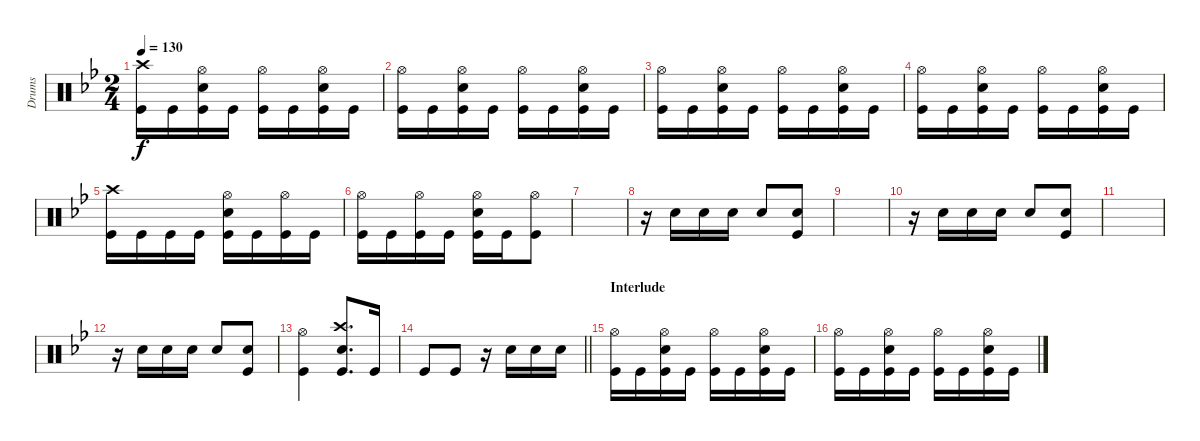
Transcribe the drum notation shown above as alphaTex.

\track ("Drums" "Drums") {instrument percussion}
\staff {score}
\articulation defaults
\ts (2 4)
\tempo 130
\clef neutral
\ks gminor
("Kick (hit)" "Crash high (hit)").16{dy f} "Kick (hit)".16 ("Kick (hit)" "Snare (hit) 2" "Hi-Hat (open)").16 "Kick (hit)".16 ("Kick (hit)" "Hi-Hat (open)").16 "Kick (hit)".16 ("Kick (hit)" "Snare (hit) 2" "Hi-Hat (open)").16 "Kick (hit)".16 |
("Kick (hit)" "Hi-Hat (open)").16 "Kick (hit)".16 ("Kick (hit)" "Snare (hit) 2" "Hi-Hat (open)").16 "Kick (hit)".16 ("Kick (hit)" "Hi-Hat (open)").16 "Kick (hit)".16 ("Kick (hit)" "Snare (hit) 2" "Hi-Hat (open)").16 "Kick (hit)".16 |
("Kick (hit)" "Hi-Hat (open)").16 "Kick (hit)".16 ("Kick (hit)" "Snare (hit) 2" "Hi-Hat (open)").16 "Kick (hit)".16 ("Kick (hit)" "Hi-Hat (open)").16 "Kick (hit)".16 ("Kick (hit)" "Snare (hit) 2" "Hi-Hat (open)").16 "Kick (hit)".16 |
("Kick (hit)" "Hi-Hat (open)").16 "Kick (hit)".16 ("Kick (hit)" "Snare (hit) 2" "Hi-Hat (open)").16 "Kick (hit)".16 ("Kick (hit)" "Hi-Hat (open)").16 "Kick (hit)".16 ("Kick (hit)" "Snare (hit) 2" "Hi-Hat (open)").16 "Kick (hit)".16 |
("Kick (hit)" "Crash high (hit)").16 "Kick (hit)".16 "Kick (hit)".16 "Kick (hit)".16 ("Kick (hit)" "Snare (hit) 2" "Hi-Hat (open)").16 "Kick (hit)".16 ("Kick (hit)" "Hi-Hat (open)").16 "Kick (hit)".16 |
("Kick (hit)" "Hi-Hat (open)").16 "Kick (hit)".16 ("Kick (hit)" "Hi-Hat (open)").16 "Kick (hit)".16 ("Kick (hit)" "Snare (hit) 2" "Hi-Hat (open)").16 "Kick (hit)".16 ("Kick (hit)" "Hi-Hat (open)").8 |
|
r.16 "Snare (hit) 2".16 "Snare (hit) 2".16 "Snare (hit) 2".16 "Snare (hit) 2".8 ("Snare (hit) 2" "Kick (hit)").8 |
|
r.16 "Snare (hit) 2".16 "Snare (hit) 2".16 "Snare (hit) 2".16 "Snare (hit) 2".8 ("Snare (hit) 2" "Kick (hit)").8 |
|
r.16 "Snare (hit) 2".16 "Snare (hit) 2".16 "Snare (hit) 2".16 "Snare (hit) 2".8 ("Snare (hit) 2" "Kick (hit)").8 |
("Kick (hit)" "Hi-Hat (open)").4 ("Kick (hit)" "Crash high (hit)" "Snare (hit) 2").8{d} "Kick (hit)".16 |
\barLineRight lightlight "Kick (hit)".8 "Kick (hit)".8
r.16 "Snare (hit) 2".16 "Snare (hit) 2".16 "Snare (hit) 2".16 |
\section ("" "Interlude")
("Kick (hit)" "Hi-Hat (open)").16 "Kick (hit)".16 ("Kick (hit)" "Snare (hit) 2" "Hi-Hat (open)").16 "Kick (hit)".16 ("Kick (hit)" "Hi-Hat (open)").16 "Kick (hit)".16 ("Kick (hit)" "Snare (hit) 2" "Hi-Hat (open)").16 "Kick (hit)".16 |
("Kick (hit)" "Hi-Hat (open)").16 "Kick (hit)".16 ("Kick (hit)" "Snare (hit) 2" "Hi-Hat (open)").16 "Kick (hit)".16 ("Kick (hit)" "Hi-Hat (open)").16 "Kick (hit)".16 ("Kick (hit)" "Snare (hit) 2" "Hi-Hat (open)").16 "Kick (hit)".16
